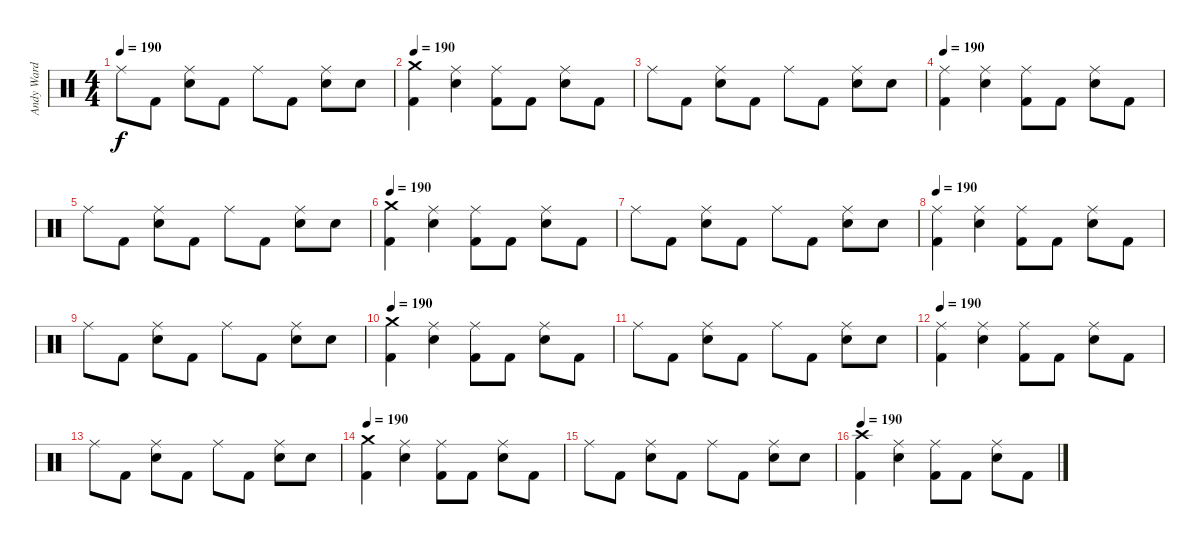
\track ("Andy Ward" "Andy Ward") {instrument percussion}
\staff {score}
\articulation defaults
\ts (4 4)
\tempo 190
\clef neutral
\ks c "Ride (middle)".8{dy f} "Kick (hit) 2".8
("Ride (middle)" "Snare (hit) 2").8 "Kick (hit) 2".8 "Ride (middle)".8 "Kick (hit) 2".8 ("Ride (middle)" "Snare (hit) 2").8 "Snare (hit) 2".8 |
\tempo 190
("Crash medium (hit)" "Kick (hit) 2").4 ("Ride (middle)" "Snare (hit) 2").4 ("Ride (middle)" "Kick (hit) 2").8 "Kick (hit) 2".8 ("Ride (middle)" "Snare (hit) 2").8 "Kick (hit) 2".8 |
"Ride (middle)".8 "Kick (hit) 2".8 ("Ride (middle)" "Snare (hit) 2").8 "Kick (hit) 2".8 "Ride (middle)".8 "Kick (hit) 2".8 ("Ride (middle)" "Snare (hit) 2").8 "Snare (hit) 2".8 |
\tempo 190
("Ride (middle)" "Kick (hit) 2").4 ("Ride (middle)" "Snare (hit) 2").4 ("Ride (middle)" "Kick (hit) 2").8 "Kick (hit) 2".8 ("Ride (middle)" "Snare (hit) 2").8 "Kick (hit) 2".8 |
"Ride (middle)".8 "Kick (hit) 2".8 ("Ride (middle)" "Snare (hit) 2").8 "Kick (hit) 2".8 "Ride (middle)".8 "Kick (hit) 2".8 ("Ride (middle)" "Snare (hit) 2").8 "Snare (hit) 2".8 |
\tempo 190
("Crash medium (hit)" "Kick (hit) 2").4 ("Ride (middle)" "Snare (hit) 2").4 ("Ride (middle)" "Kick (hit) 2").8 "Kick (hit) 2".8 ("Ride (middle)" "Snare (hit) 2").8 "Kick (hit) 2".8 |
"Ride (middle)".8 "Kick (hit) 2".8 ("Ride (middle)" "Snare (hit) 2").8 "Kick (hit) 2".8 "Ride (middle)".8 "Kick (hit) 2".8 ("Ride (middle)" "Snare (hit) 2").8 "Snare (hit) 2".8 |
\tempo 190
("Ride (middle)" "Kick (hit) 2").4 ("Ride (middle)" "Snare (hit) 2").4 ("Ride (middle)" "Kick (hit) 2").8 "Kick (hit) 2".8 ("Ride (middle)" "Snare (hit) 2").8 "Kick (hit) 2".8 |
"Ride (middle)".8 "Kick (hit) 2".8 ("Ride (middle)" "Snare (hit) 2").8 "Kick (hit) 2".8 "Ride (middle)".8 "Kick (hit) 2".8 ("Ride (middle)" "Snare (hit) 2").8 "Snare (hit) 2".8 |
\tempo 190
("Crash medium (hit)" "Kick (hit) 2").4 ("Ride (middle)" "Snare (hit) 2").4 ("Ride (middle)" "Kick (hit) 2").8 "Kick (hit) 2".8 ("Ride (middle)" "Snare (hit) 2").8 "Kick (hit) 2".8 |
"Ride (middle)".8 "Kick (hit) 2".8 ("Ride (middle)" "Snare (hit) 2").8 "Kick (hit) 2".8 "Ride (middle)".8 "Kick (hit) 2".8 ("Ride (middle)" "Snare (hit) 2").8 "Snare (hit) 2".8 |
\tempo 190
("Ride (middle)" "Kick (hit) 2").4 ("Ride (middle)" "Snare (hit) 2").4 ("Ride (middle)" "Kick (hit) 2").8 "Kick (hit) 2".8 ("Ride (middle)" "Snare (hit) 2").8 "Kick (hit) 2".8 |
"Ride (middle)".8 "Kick (hit) 2".8 ("Ride (middle)" "Snare (hit) 2").8 "Kick (hit) 2".8 "Ride (middle)".8 "Kick (hit) 2".8 ("Ride (middle)" "Snare (hit) 2").8 "Snare (hit) 2".8 |
\tempo 190
("Crash medium (hit)" "Kick (hit) 2").4 ("Ride (middle)" "Snare (hit) 2").4 ("Ride (middle)" "Kick (hit) 2").8 "Kick (hit) 2".8 ("Ride (middle)" "Snare (hit) 2").8 "Kick (hit) 2".8 |
"Ride (middle)".8 "Kick (hit) 2".8 ("Ride (middle)" "Snare (hit) 2").8 "Kick (hit) 2".8 "Ride (middle)".8 "Kick (hit) 2".8 ("Ride (middle)" "Snare (hit) 2").8 "Snare (hit) 2".8 |
\tempo 190
("Crash high (hit)" "Kick (hit) 2").4 ("Ride (middle)" "Snare (hit) 2").4 ("Ride (middle)" "Kick (hit) 2").8 "Kick (hit) 2".8 ("Ride (middle)" "Snare (hit) 2").8 "Kick (hit) 2".8
